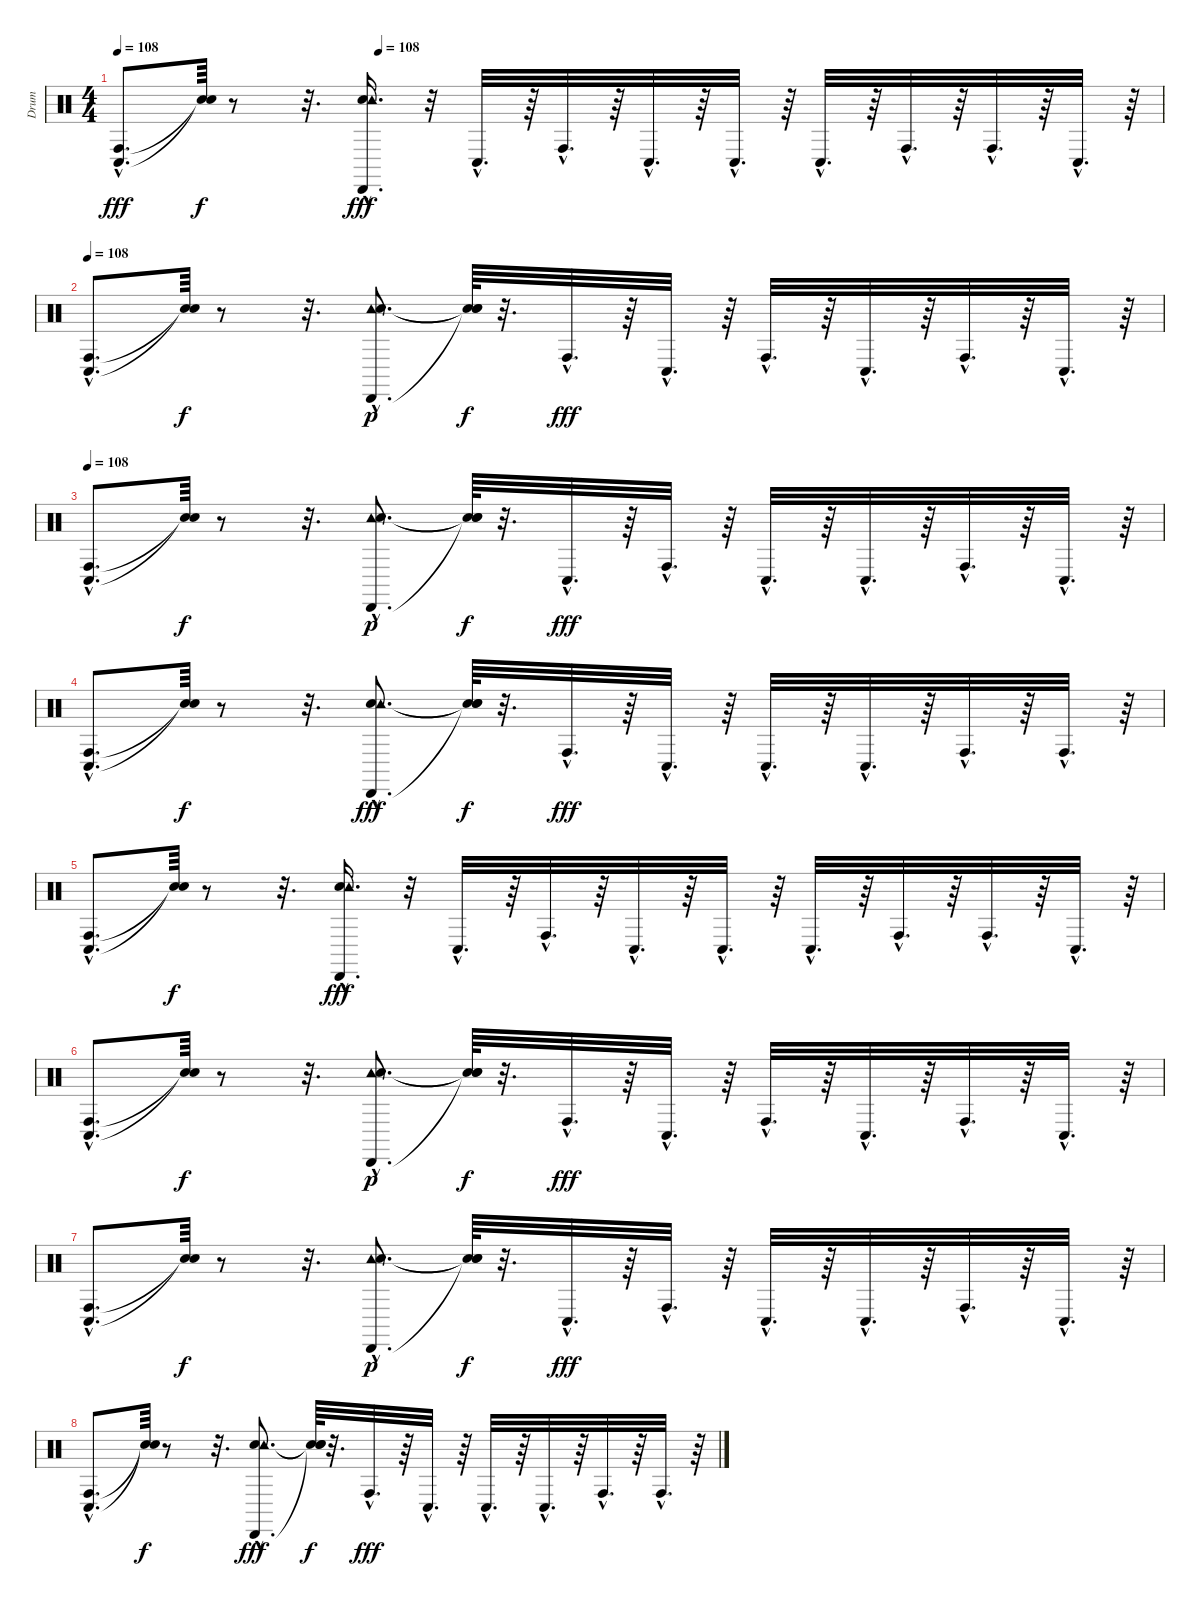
\track ("Drum" "Drum") {instrument percussion}
\staff {score}
\articulation defaults
\ts (4 4)
\tempo 108
\tempo (108 0.25)
\clef neutral
\ks c
("Conga low (hit)"{hac} "Conga high (hit)"{hac}).8{d dy fff} ("Snare (hit)"{t} "Snare (hit)"{t}).64{dy f} r.8 r.32{d} ("Snare (hit) 2"{hac} "Tambourine (hit)"{hac} "Cabasa (hit)"{hac}).16{d dy fff} r.32 "Conga low (hit)"{hac}.32{d} r.64 "Conga high (hit)"{hac}.32{d} r.64 "Conga low (hit)"{hac}.32{d} r.64 "Conga low (hit)"{hac}.32{d} r.64 "Conga low (hit)"{hac}.32{d} r.64 "Conga high (hit)"{hac}.32{d} r.64 "Conga high (hit)"{hac}.32{d} r.64 "Conga low (hit)"{hac}.32{d} r.64 |
\tempo 108
("Conga high (hit)"{hac} "Conga low (hit)"{hac}).8{d} ("Snare (hit)"{t} "Snare (hit)"{t}).64{dy f} r.8 r.32{d} ("Cabasa (hit)"{hac} "Tambourine (hit)"{hac} "Snare (hit) 2"{hac}).8{d dy p} ("Snare (hit)"{t} "Snare (hit)"{t} "Snare (hit)"{t}).64{dy f} r.32{d} "Conga high (hit)"{hac}.32{d dy fff} r.64 "Conga low (hit)"{hac}.32{d} r.64 "Conga high (hit)"{hac}.32{d} r.64 "Conga low (hit)"{hac}.32{d} r.64 "Conga high (hit)"{hac}.32{d} r.64 "Conga low (hit)"{hac}.32{d} r.64 |
\tempo 108
("Conga high (hit)"{hac} "Conga low (hit)"{hac}).8{d} ("Snare (hit)"{t} "Snare (hit)"{t}).64{dy f} r.8 r.32{d} ("Cabasa (hit)"{hac} "Tambourine (hit)"{hac} "Snare (hit) 2"{hac}).8{d dy p} ("Snare (hit)"{t} "Snare (hit)"{t} "Snare (hit)"{t}).64{dy f} r.32{d} "Conga low (hit)"{hac}.32{d dy fff} r.64 "Conga high (hit)"{hac}.32{d} r.64 "Conga low (hit)"{hac}.32{d} r.64 "Conga low (hit)"{hac}.32{d} r.64 "Conga high (hit)"{hac}.32{d} r.64 "Conga low (hit)"{hac}.32{d} r.64 |
("Conga low (hit)"{hac} "Conga high (hit)"{hac}).8{d} ("Snare (hit)"{t} "Snare (hit)"{t}).64{dy f} r.8 r.32{d} ("Snare (hit) 2"{hac} "Tambourine (hit)"{hac} "Cabasa (hit)"{hac}).8{d dy fff} ("Snare (hit)"{t} "Snare (hit)"{t} "Snare (hit)"{t}).64{dy f} r.32{d} "Conga high (hit)"{hac}.32{d dy fff} r.64 "Conga low (hit)"{hac}.32{d} r.64 "Conga low (hit)"{hac}.32{d} r.64 "Conga low (hit)"{hac}.32{d} r.64 "Conga high (hit)"{hac}.32{d} r.64 "Conga high (hit)"{hac}.32{d} r.64 |
("Conga low (hit)"{hac} "Conga high (hit)"{hac}).8{d} ("Snare (hit)"{t} "Snare (hit)"{t}).64{dy f} r.8 r.32{d} ("Snare (hit) 2"{hac} "Tambourine (hit)"{hac} "Cabasa (hit)"{hac}).16{d dy fff} r.32 "Conga low (hit)"{hac}.32{d} r.64 "Conga high (hit)"{hac}.32{d} r.64 "Conga low (hit)"{hac}.32{d} r.64 "Conga low (hit)"{hac}.32{d} r.64 "Conga low (hit)"{hac}.32{d} r.64 "Conga high (hit)"{hac}.32{d} r.64 "Conga high (hit)"{hac}.32{d} r.64 "Conga low (hit)"{hac}.32{d} r.64 |
("Conga high (hit)"{hac} "Conga low (hit)"{hac}).8{d} ("Snare (hit)"{t} "Snare (hit)"{t}).64{dy f} r.8 r.32{d} ("Cabasa (hit)"{hac} "Tambourine (hit)"{hac} "Snare (hit) 2"{hac}).8{d dy p} ("Snare (hit)"{t} "Snare (hit)"{t} "Snare (hit)"{t}).64{dy f} r.32{d} "Conga high (hit)"{hac}.32{d dy fff} r.64 "Conga low (hit)"{hac}.32{d} r.64 "Conga high (hit)"{hac}.32{d} r.64 "Conga low (hit)"{hac}.32{d} r.64 "Conga high (hit)"{hac}.32{d} r.64 "Conga low (hit)"{hac}.32{d} r.64 |
("Conga high (hit)"{hac} "Conga low (hit)"{hac}).8{d} ("Snare (hit)"{t} "Snare (hit)"{t}).64{dy f} r.8 r.32{d} ("Cabasa (hit)"{hac} "Tambourine (hit)"{hac} "Snare (hit) 2"{hac}).8{d dy p} ("Snare (hit)"{t} "Snare (hit)"{t} "Snare (hit)"{t}).64{dy f} r.32{d} "Conga low (hit)"{hac}.32{d dy fff} r.64 "Conga high (hit)"{hac}.32{d} r.64 "Conga low (hit)"{hac}.32{d} r.64 "Conga low (hit)"{hac}.32{d} r.64 "Conga high (hit)"{hac}.32{d} r.64 "Conga low (hit)"{hac}.32{d} r.64 |
("Conga low (hit)"{hac} "Conga high (hit)"{hac}).8{d} ("Snare (hit)"{t} "Snare (hit)"{t}).64{dy f} r.8 r.32{d} ("Snare (hit) 2"{hac} "Tambourine (hit)"{hac} "Cabasa (hit)"{hac}).8{d dy fff} ("Snare (hit)"{t} "Snare (hit)"{t} "Snare (hit)"{t}).64{dy f} r.32{d} "Conga high (hit)"{hac}.32{d dy fff} r.64 "Conga low (hit)"{hac}.32{d} r.64 "Conga low (hit)"{hac}.32{d} r.64 "Conga low (hit)"{hac}.32{d} r.64 "Conga high (hit)"{hac}.32{d} r.64 "Conga high (hit)"{hac}.32{d} r.64
